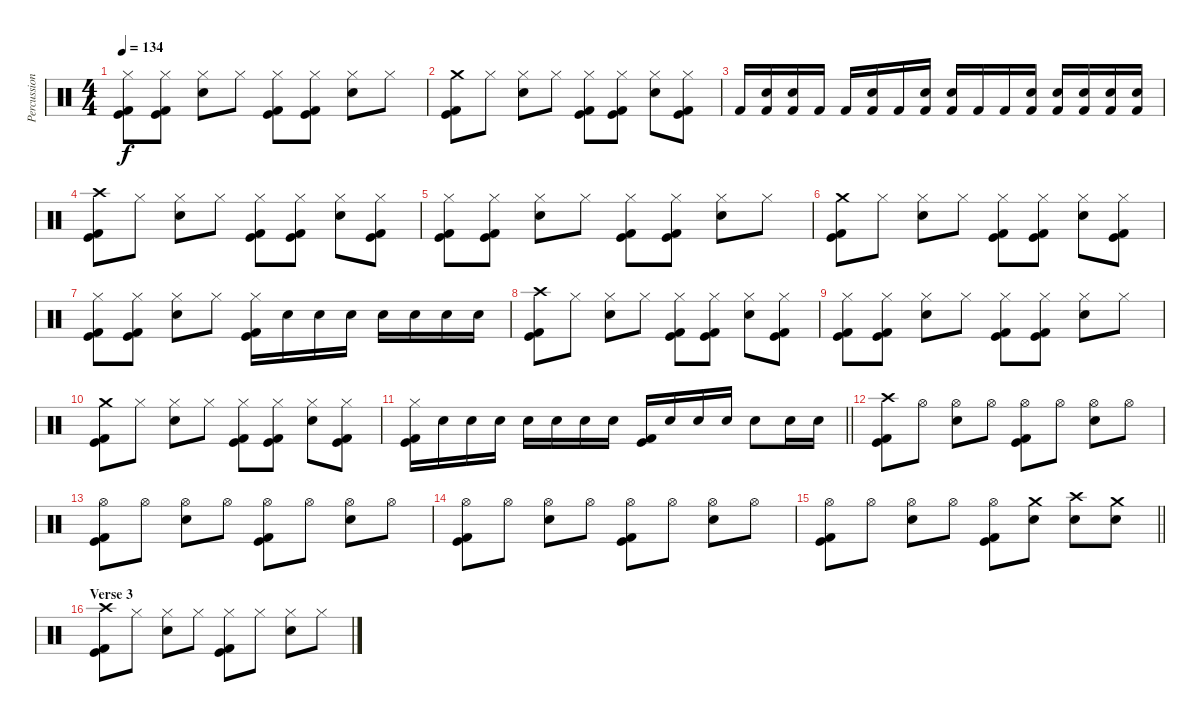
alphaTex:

\track ("Percussion" "Percussion") {instrument percussion}
\staff {score}
\articulation defaults
\ts (4 4)
\tempo 134
\clef neutral
\ks c
("Hi-Hat (closed)" "Kick (hit)" "Kick (hit) 2").8{dy f} ("Hi-Hat (closed)" "Kick (hit)" "Kick (hit) 2").8 ("Hi-Hat (closed)" "Electric Snare (hit)").8 "Hi-Hat (closed)".8 ("Hi-Hat (closed)" "Kick (hit)" "Kick (hit) 2").8 ("Hi-Hat (closed)" "Kick (hit)" "Kick (hit) 2").8 ("Hi-Hat (closed)" "Electric Snare (hit)").8 "Hi-Hat (closed)".8 |
("Crash medium (hit)" "Kick (hit)" "Kick (hit) 2").8 "Hi-Hat (closed)".8 ("Hi-Hat (closed)" "Electric Snare (hit)").8 "Hi-Hat (closed)".8 ("Hi-Hat (closed)" "Kick (hit)" "Kick (hit) 2").8 ("Hi-Hat (closed)" "Kick (hit)" "Kick (hit) 2").8 ("Hi-Hat (closed)" "Electric Snare (hit)").8 ("Hi-Hat (closed)" "Kick (hit)" "Kick (hit) 2").8 |
"Kick (hit) 2".16 ("Electric Snare (hit)" "Kick (hit) 2").16 ("Electric Snare (hit)" "Kick (hit) 2").16 "Kick (hit) 2".16 "Kick (hit) 2".16 ("Electric Snare (hit)" "Kick (hit) 2").16 "Kick (hit) 2".16 ("Electric Snare (hit)" "Kick (hit) 2").16 ("Electric Snare (hit)" "Kick (hit) 2").16 "Kick (hit) 2".16 "Kick (hit) 2".16 ("Electric Snare (hit)" "Kick (hit) 2").16 ("Electric Snare (hit)" "Kick (hit) 2").16 ("Electric Snare (hit)" "Kick (hit) 2").16 ("Electric Snare (hit)" "Kick (hit) 2").16 ("Electric Snare (hit)" "Kick (hit) 2").16 |
("Crash high (hit)" "Kick (hit)" "Kick (hit) 2").8 "Hi-Hat (closed)".8 ("Hi-Hat (closed)" "Electric Snare (hit)").8 "Hi-Hat (closed)".8 ("Hi-Hat (closed)" "Kick (hit)" "Kick (hit) 2").8 ("Hi-Hat (closed)" "Kick (hit)" "Kick (hit) 2").8 ("Hi-Hat (closed)" "Electric Snare (hit)").8 ("Hi-Hat (closed)" "Kick (hit)" "Kick (hit) 2").8 |
("Hi-Hat (closed)" "Kick (hit)" "Kick (hit) 2").8 ("Hi-Hat (closed)" "Kick (hit)" "Kick (hit) 2").8 ("Hi-Hat (closed)" "Electric Snare (hit)").8 "Hi-Hat (closed)".8 ("Hi-Hat (closed)" "Kick (hit)" "Kick (hit) 2").8 ("Hi-Hat (closed)" "Kick (hit)" "Kick (hit) 2").8 ("Hi-Hat (closed)" "Electric Snare (hit)").8 "Hi-Hat (closed)".8 |
("Crash medium (hit)" "Kick (hit)" "Kick (hit) 2").8 "Hi-Hat (closed)".8 ("Hi-Hat (closed)" "Electric Snare (hit)").8 "Hi-Hat (closed)".8 ("Hi-Hat (closed)" "Kick (hit)" "Kick (hit) 2").8 ("Hi-Hat (closed)" "Kick (hit)" "Kick (hit) 2").8 ("Hi-Hat (closed)" "Electric Snare (hit)").8 ("Hi-Hat (closed)" "Kick (hit)" "Kick (hit) 2").8 |
("Hi-Hat (closed)" "Kick (hit)" "Kick (hit) 2").8 ("Hi-Hat (closed)" "Kick (hit)" "Kick (hit) 2").8 ("Hi-Hat (closed)" "Electric Snare (hit)").8 "Hi-Hat (closed)".8 ("Hi-Hat (closed)" "Kick (hit)" "Kick (hit) 2").16 "Electric Snare (hit)".16 "Electric Snare (hit)".16 "Electric Snare (hit)".16 "Electric Snare (hit)".16 "Electric Snare (hit)".16 "Electric Snare (hit)".16 "Electric Snare (hit)".16 |
("Crash high (hit)" "Kick (hit)" "Kick (hit) 2").8 "Hi-Hat (closed)".8 ("Hi-Hat (closed)" "Electric Snare (hit)").8 "Hi-Hat (closed)".8 ("Hi-Hat (closed)" "Kick (hit)" "Kick (hit) 2").8 ("Hi-Hat (closed)" "Kick (hit)" "Kick (hit) 2").8 ("Hi-Hat (closed)" "Electric Snare (hit)").8 ("Hi-Hat (closed)" "Kick (hit)" "Kick (hit) 2").8 |
("Hi-Hat (closed)" "Kick (hit)" "Kick (hit) 2").8 ("Hi-Hat (closed)" "Kick (hit)" "Kick (hit) 2").8 ("Hi-Hat (closed)" "Electric Snare (hit)").8 "Hi-Hat (closed)".8 ("Hi-Hat (closed)" "Kick (hit)" "Kick (hit) 2").8 ("Hi-Hat (closed)" "Kick (hit)" "Kick (hit) 2").8 ("Hi-Hat (closed)" "Electric Snare (hit)").8 "Hi-Hat (closed)".8 |
("Crash medium (hit)" "Kick (hit)" "Kick (hit) 2").8 "Hi-Hat (closed)".8 ("Hi-Hat (closed)" "Electric Snare (hit)").8 "Hi-Hat (closed)".8 ("Hi-Hat (closed)" "Kick (hit)" "Kick (hit) 2").8 ("Hi-Hat (closed)" "Kick (hit)" "Kick (hit) 2").8 ("Hi-Hat (closed)" "Electric Snare (hit)").8 ("Hi-Hat (closed)" "Kick (hit)" "Kick (hit) 2").8 |
\barLineRight lightlight
("Hi-Hat (closed)" "Kick (hit)" "Kick (hit) 2").16 "Electric Snare (hit)".16 "Electric Snare (hit)".16 "Electric Snare (hit)".16 "Electric Snare (hit)".16 "Electric Snare (hit)".16 "Electric Snare (hit)".16 "Electric Snare (hit)".16 ("Kick (hit)" "Kick (hit) 2").16 "Electric Snare (hit)".16 "Electric Snare (hit)".16 "Electric Snare (hit)".16 "Electric Snare (hit)".8 "Electric Snare (hit)".16 "Electric Snare (hit)".16 |
\section ("" "")
("Crash high (hit)" "Kick (hit)" "Kick (hit) 2").8 "Hi-Hat (open)".8 ("Hi-Hat (open)" "Electric Snare (hit)").8 "Hi-Hat (open)".8 ("Hi-Hat (open)" "Kick (hit)" "Kick (hit) 2").8 "Hi-Hat (open)".8 ("Hi-Hat (open)" "Electric Snare (hit)").8 "Hi-Hat (open)".8 |
("Hi-Hat (open)" "Kick (hit)" "Kick (hit) 2").8 "Hi-Hat (open)".8 ("Hi-Hat (open)" "Electric Snare (hit)").8 "Hi-Hat (open)".8 ("Hi-Hat (open)" "Kick (hit)" "Kick (hit) 2").8 "Hi-Hat (open)".8 ("Hi-Hat (open)" "Electric Snare (hit)").8 "Hi-Hat (open)".8 |
("Hi-Hat (open)" "Kick (hit)" "Kick (hit) 2").8 "Hi-Hat (open)".8 ("Hi-Hat (open)" "Electric Snare (hit)").8 "Hi-Hat (open)".8 ("Hi-Hat (open)" "Kick (hit)" "Kick (hit) 2").8 "Hi-Hat (open)".8 ("Hi-Hat (open)" "Electric Snare (hit)").8 "Hi-Hat (open)".8 |
\barLineRight lightlight
("Hi-Hat (open)" "Kick (hit)" "Kick (hit) 2").8 "Hi-Hat (open)".8 ("Hi-Hat (open)" "Electric Snare (hit)").8 "Hi-Hat (open)".8 ("Hi-Hat (open)" "Kick (hit)" "Kick (hit) 2").8 ("Crash medium (hit)" "Electric Snare (hit)").8 ("Crash high (hit)" "Electric Snare (hit)").8 ("Crash medium (hit)" "Electric Snare (hit)").8 |
\section ("" "Verse 3")
("Crash high (hit)" "Kick (hit)" "Kick (hit) 2").8 "Hi-Hat (closed)".8 ("Hi-Hat (closed)" "Electric Snare (hit)").8 "Hi-Hat (closed)".8 ("Hi-Hat (closed)" "Kick (hit)" "Kick (hit) 2").8 "Hi-Hat (closed)".8 ("Hi-Hat (closed)" "Electric Snare (hit)").8 "Hi-Hat (closed)".8
